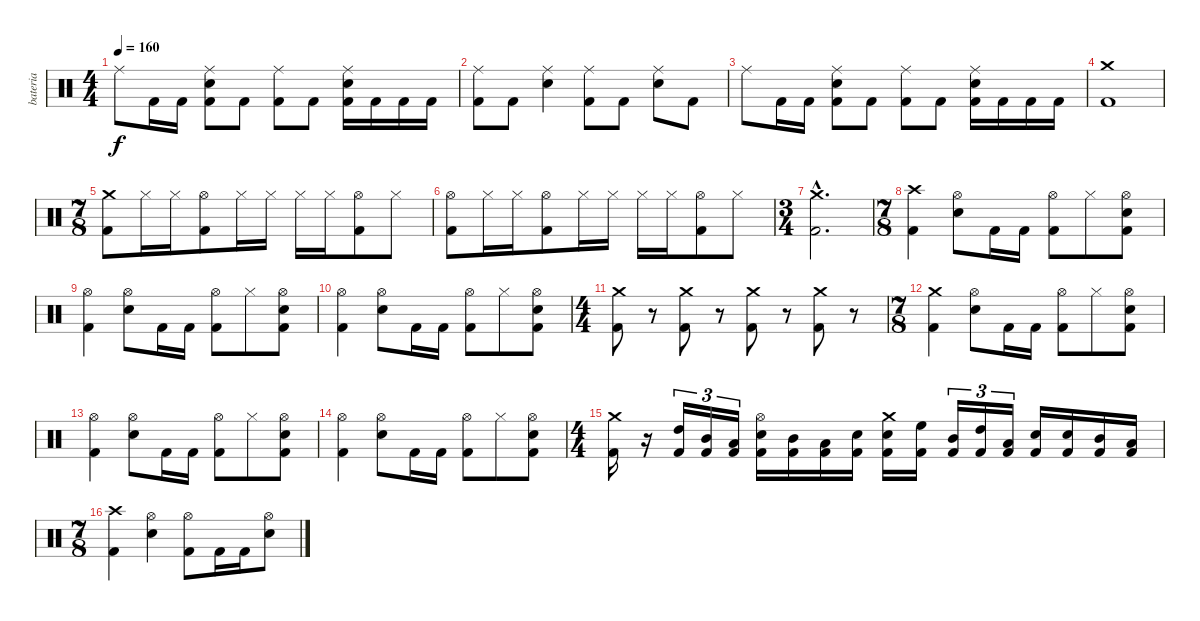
\track ("bateria" "bateria") {instrument percussion}
\staff {score}
\articulation defaults
\ts (4 4)
\tempo 160
\clef neutral
\ks c "Ride (middle)".8{dy f} "Kick (hit) 2".16 "Kick (hit) 2".16
("Ride (middle)" "Electric Snare (hit)" "Kick (hit) 2").8 "Kick (hit) 2".8 ("Ride (middle)" "Kick (hit) 2").8 "Kick (hit) 2".8 ("Ride (middle)" "Electric Snare (hit)" "Kick (hit) 2").16 "Kick (hit) 2".16 "Kick (hit) 2".16 "Kick (hit) 2".16 |
("Ride (middle)" "Kick (hit) 2").8 "Kick (hit) 2".8 ("Ride (middle)" "Electric Snare (hit)").4 ("Ride (middle)" "Kick (hit) 2").8 "Kick (hit) 2".8 ("Ride (middle)" "Electric Snare (hit)").8 "Kick (hit) 2".8 |
"Ride (middle)".8 "Kick (hit) 2".16 "Kick (hit) 2".16 ("Ride (middle)" "Electric Snare (hit)" "Kick (hit) 2").8 "Kick (hit) 2".8 ("Ride (middle)" "Kick (hit) 2").8 "Kick (hit) 2".8 ("Ride (middle)" "Electric Snare (hit)" "Kick (hit) 2").16 "Kick (hit) 2".16 "Kick (hit) 2".16 "Kick (hit) 2".16 |
("Crash medium (hit)" "Kick (hit) 2").1 |
\ts (7 8)
("Crash medium (hit)" "Kick (hit) 2").8 "Hi-Hat (closed)".16 "Hi-Hat (closed)".16 ("Hi-Hat (open)" "Kick (hit) 2").8 "Hi-Hat (closed)".16 "Hi-Hat (closed)".16 "Hi-Hat (closed)".16 "Hi-Hat (closed)".16 ("Hi-Hat (open)" "Kick (hit) 2").8 "Hi-Hat (closed)".8 |
("Hi-Hat (open)" "Kick (hit) 2").8 "Hi-Hat (closed)".16 "Hi-Hat (closed)".16 ("Hi-Hat (open)" "Kick (hit) 2").8 "Hi-Hat (closed)".16 "Hi-Hat (closed)".16 "Hi-Hat (closed)".16 "Hi-Hat (closed)".16 ("Hi-Hat (open)" "Kick (hit) 2").8 "Hi-Hat (closed)".8 |
\ts (3 4)
("Crash medium (hit)"{hac} "Kick (hit) 2"{hac}).2{d} |
\ts (7 8)
("Crash high (hit)" "Kick (hit) 2").4 ("Hi-Hat (open)" "Electric Snare (hit)").8 "Kick (hit) 2".16 "Kick (hit) 2".16 ("Hi-Hat (open)" "Kick (hit) 2").8 "Hi-Hat (closed)".8 ("Hi-Hat (open)" "Electric Snare (hit)" "Kick (hit) 2").8 |
("Hi-Hat (open)" "Kick (hit) 2").4 ("Hi-Hat (open)" "Electric Snare (hit)").8 "Kick (hit) 2".16 "Kick (hit) 2".16 ("Hi-Hat (open)" "Kick (hit) 2").8 "Hi-Hat (closed)".8 ("Hi-Hat (open)" "Electric Snare (hit)" "Kick (hit) 2").8 |
("Hi-Hat (open)" "Kick (hit) 2").4 ("Hi-Hat (open)" "Electric Snare (hit)").8 "Kick (hit) 2".16 "Kick (hit) 2".16 ("Hi-Hat (open)" "Kick (hit) 2").8 "Hi-Hat (closed)".8 ("Hi-Hat (open)" "Electric Snare (hit)" "Kick (hit) 2").8 |
\ts (4 4)
("Crash medium (hit)" "Kick (hit) 2").8 r.8{volume 0} ("Crash medium (hit)" "Kick (hit) 2").8{volume 15} r.8{volume 0} ("Crash medium (hit)" "Kick (hit) 2").8{volume 15} r.8{volume 0} ("Crash medium (hit)" "Kick (hit) 2").8{volume 15} r.8{volume 0} |
\ts (7 8)
("Crash medium (hit)" "Kick (hit) 2").4{volume 15} ("Hi-Hat (open)" "Electric Snare (hit)").8 "Kick (hit) 2".16 "Kick (hit) 2".16 ("Hi-Hat (open)" "Kick (hit) 2").8 "Hi-Hat (closed)".8 ("Hi-Hat (open)" "Electric Snare (hit)" "Kick (hit) 2").8 |
("Hi-Hat (open)" "Kick (hit) 2").4 ("Hi-Hat (open)" "Electric Snare (hit)").8 "Kick (hit) 2".16 "Kick (hit) 2".16 ("Hi-Hat (open)" "Kick (hit) 2").8 "Hi-Hat (closed)".8 ("Hi-Hat (open)" "Electric Snare (hit)" "Kick (hit) 2").8 |
("Hi-Hat (open)" "Kick (hit) 2").4 ("Hi-Hat (open)" "Electric Snare (hit)").8 "Kick (hit) 2".16 "Kick (hit) 2".16 ("Hi-Hat (open)" "Kick (hit) 2").8 "Hi-Hat (closed)".8 ("Hi-Hat (open)" "Electric Snare (hit)" "Kick (hit) 2").8 |
\ts (4 4)
("Crash medium (hit)" "Kick (hit) 2").16 r.16{volume 0} ("High Tom (hit)" "Kick (hit) 2").16{tu (3 2) volume 15} ("Mid Tom (hit)" "Kick (hit) 2").16{tu (3 2)} ("Low Tom (hit)" "Kick (hit) 2").16{tu (3 2)} ("Hi-Hat (open)" "Electric Snare (hit)" "Kick (hit) 2").16 ("Mid Tom (hit)" "Kick (hit) 2").16 ("Low Tom (hit)" "Kick (hit) 2").16 ("Electric Snare (hit)" "Kick (hit) 2").16 ("Crash medium (hit)" "Electric Snare (hit)" "Kick (hit) 2").16 ("High Floor Tom (hit)" "Kick (hit) 2").16 ("Mid Tom (hit)" "Kick (hit) 2").16{tu (3 2)} ("High Tom (hit)" "Kick (hit) 2").16{tu (3 2)} ("Low Tom (hit)" "Kick (hit) 2").16{tu (3 2)} ("Electric Snare (hit)" "Kick (hit) 2").16 ("Electric Snare (hit)" "Kick (hit) 2").16 ("Mid Tom (hit)" "Kick (hit) 2").16 ("Low Tom (hit)" "Kick (hit) 2").16 |
\ts (7 8)
("Crash high (hit)" "Kick (hit) 2").4 ("Hi-Hat (open)" "Electric Snare (hit)").4 ("Hi-Hat (open)" "Kick (hit) 2").8 "Kick (hit) 2".16 "Kick (hit) 2".16 ("Hi-Hat (open)" "Electric Snare (hit)").8
